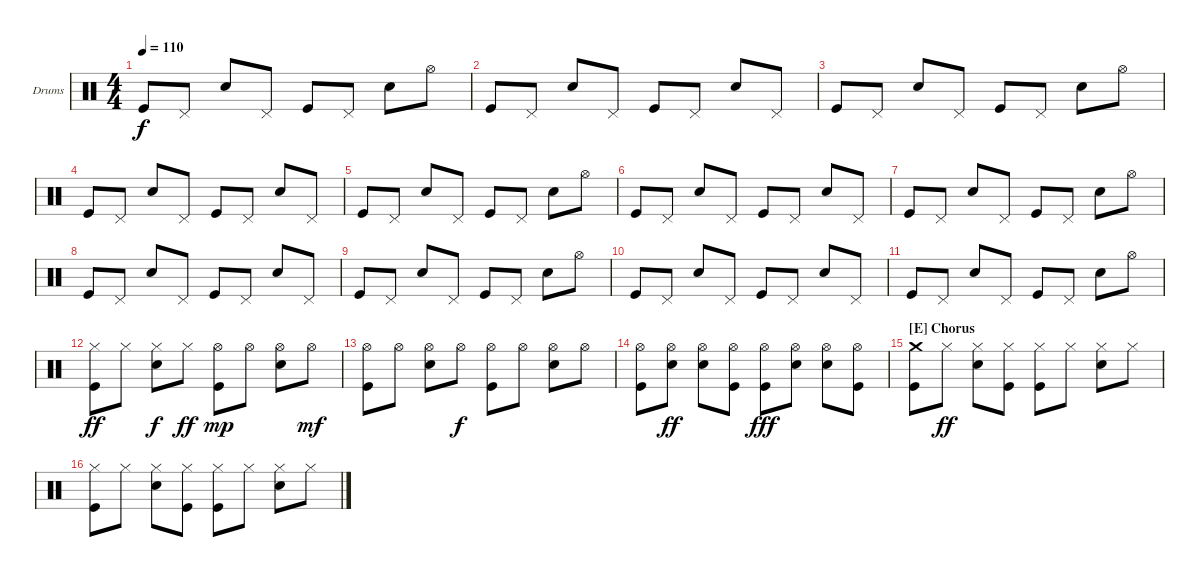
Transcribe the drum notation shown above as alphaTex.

\bracketExtendMode groupsimilarinstruments
\firstSystemTrackNameOrientation horizontal
\otherSystemsTrackNameOrientation horizontal
\track ("Drum Kit" "Drums") {instrument percussion}
\staff {score}
\articulation defaults
\ts (4 4)
\tempo 110
\clef neutral
\scale
0.333333
\ks c "Kick (hit)".8{dy f} "Pedal Hi-Hat (hit)".8 "Snare (hit) 2".8 "Pedal Hi-Hat (hit)".8 "Kick (hit)".8 "Pedal Hi-Hat (hit)".8 "Snare (hit) 2".8 "Hi-Hat (open)".8
|
\scale
0.333333 "Kick (hit)".8 "Pedal Hi-Hat (hit)".8 "Snare (hit) 2".8 "Pedal Hi-Hat (hit)".8 "Kick (hit)".8 "Pedal Hi-Hat (hit)".8 "Snare (hit) 2".8 "Pedal Hi-Hat (hit)".8 |
\scale
0.333333 "Kick (hit)".8 "Pedal Hi-Hat (hit)".8 "Snare (hit) 2".8 "Pedal Hi-Hat (hit)".8 "Kick (hit)".8 "Pedal Hi-Hat (hit)".8 "Snare (hit) 2".8 "Hi-Hat (open)".8 |
\scale
0.333333 "Kick (hit)".8 "Pedal Hi-Hat (hit)".8 "Snare (hit) 2".8 "Pedal Hi-Hat (hit)".8 "Kick (hit)".8 "Pedal Hi-Hat (hit)".8 "Snare (hit) 2".8 "Pedal Hi-Hat (hit)".8 |
\scale
0.333333 "Kick (hit)".8 "Pedal Hi-Hat (hit)".8 "Snare (hit) 2".8 "Pedal Hi-Hat (hit)".8 "Kick (hit)".8 "Pedal Hi-Hat (hit)".8 "Snare (hit) 2".8 "Hi-Hat (open)".8 |
\scale
0.333333 "Kick (hit)".8 "Pedal Hi-Hat (hit)".8 "Snare (hit) 2".8 "Pedal Hi-Hat (hit)".8 "Kick (hit)".8 "Pedal Hi-Hat (hit)".8 "Snare (hit) 2".8 "Pedal Hi-Hat (hit)".8 |
\scale
0.333333 "Kick (hit)".8 "Pedal Hi-Hat (hit)".8 "Snare (hit) 2".8 "Pedal Hi-Hat (hit)".8 "Kick (hit)".8 "Pedal Hi-Hat (hit)".8 "Snare (hit) 2".8 "Hi-Hat (open)".8 |
\scale
0.333333 "Kick (hit)".8 "Pedal Hi-Hat (hit)".8 "Snare (hit) 2".8 "Pedal Hi-Hat (hit)".8 "Kick (hit)".8 "Pedal Hi-Hat (hit)".8 "Snare (hit) 2".8 "Pedal Hi-Hat (hit)".8 |
\scale
0.333333 "Kick (hit)".8 "Pedal Hi-Hat (hit)".8 "Snare (hit) 2".8 "Pedal Hi-Hat (hit)".8 "Kick (hit)".8 "Pedal Hi-Hat (hit)".8 "Snare (hit) 2".8 "Hi-Hat (open)".8 |
\scale
0.333333 "Kick (hit)".8 "Pedal Hi-Hat (hit)".8 "Snare (hit) 2".8 "Pedal Hi-Hat (hit)".8 "Kick (hit)".8 "Pedal Hi-Hat (hit)".8 "Snare (hit) 2".8 "Pedal Hi-Hat (hit)".8 |
\scale
0.333333 "Kick (hit)".8 "Pedal Hi-Hat (hit)".8 "Snare (hit) 2".8 "Pedal Hi-Hat (hit)".8 "Kick (hit)".8 "Pedal Hi-Hat (hit)".8 "Snare (hit) 2".8 "Hi-Hat (open)".8 |
\scale
0.333333 ("Kick (hit)" "Hi-Hat (closed)").8{dy ff} "Hi-Hat (closed)".8 ("Snare (hit) 2" "Hi-Hat (closed)").8{dy f} "Hi-Hat (closed)".8{dy ff} ("Kick (hit)" "Hi-Hat (open)").8{dy mp} "Hi-Hat (open)".8 ("Snare (hit) 2" "Hi-Hat (open)").8 "Hi-Hat (open)".8{dy mf} |
\scale
0.333333 ("Hi-Hat (open)" "Kick (hit)").8 "Hi-Hat (open)".8 ("Hi-Hat (open)" "Snare (hit) 2").8 "Hi-Hat (open)".8{dy f} ("Hi-Hat (open)" "Kick (hit)").8 "Hi-Hat (open)".8 ("Hi-Hat (open)" "Snare (hit) 2").8 "Hi-Hat (open)".8 |
\scale
0.333333 ("Hi-Hat (open)" "Kick (hit)").8 ("Hi-Hat (open)" "Snare (hit) 2").8{dy ff} ("Hi-Hat (open)" "Snare (hit) 2").8 ("Hi-Hat (open)" "Kick (hit)").8 ("Hi-Hat (open)" "Kick (hit)").8{dy fff} ("Hi-Hat (open)" "Snare (hit) 2").8 ("Hi-Hat (open)" "Snare (hit) 2").8 ("Hi-Hat (open)" "Kick (hit)").8 |
\section ("E" "Chorus")
\scale
0.333333 ("Crash medium (hit)" "Kick (hit)").8 "Hi-Hat (closed)".8{dy ff} ("Hi-Hat (closed)" "Snare (hit) 2").8 ("Hi-Hat (closed)" "Kick (hit)").8 ("Hi-Hat (closed)" "Kick (hit)").8 "Hi-Hat (closed)".8 ("Hi-Hat (closed)" "Snare (hit) 2").8 "Hi-Hat (closed)".8 |
\scale
0.333333 ("Hi-Hat (closed)" "Kick (hit)").8 "Hi-Hat (closed)".8 ("Hi-Hat (closed)" "Snare (hit) 2").8 ("Hi-Hat (closed)" "Kick (hit)").8 ("Hi-Hat (closed)" "Kick (hit)").8 "Hi-Hat (closed)".8 ("Hi-Hat (closed)" "Snare (hit) 2").8 "Hi-Hat (closed)".8
